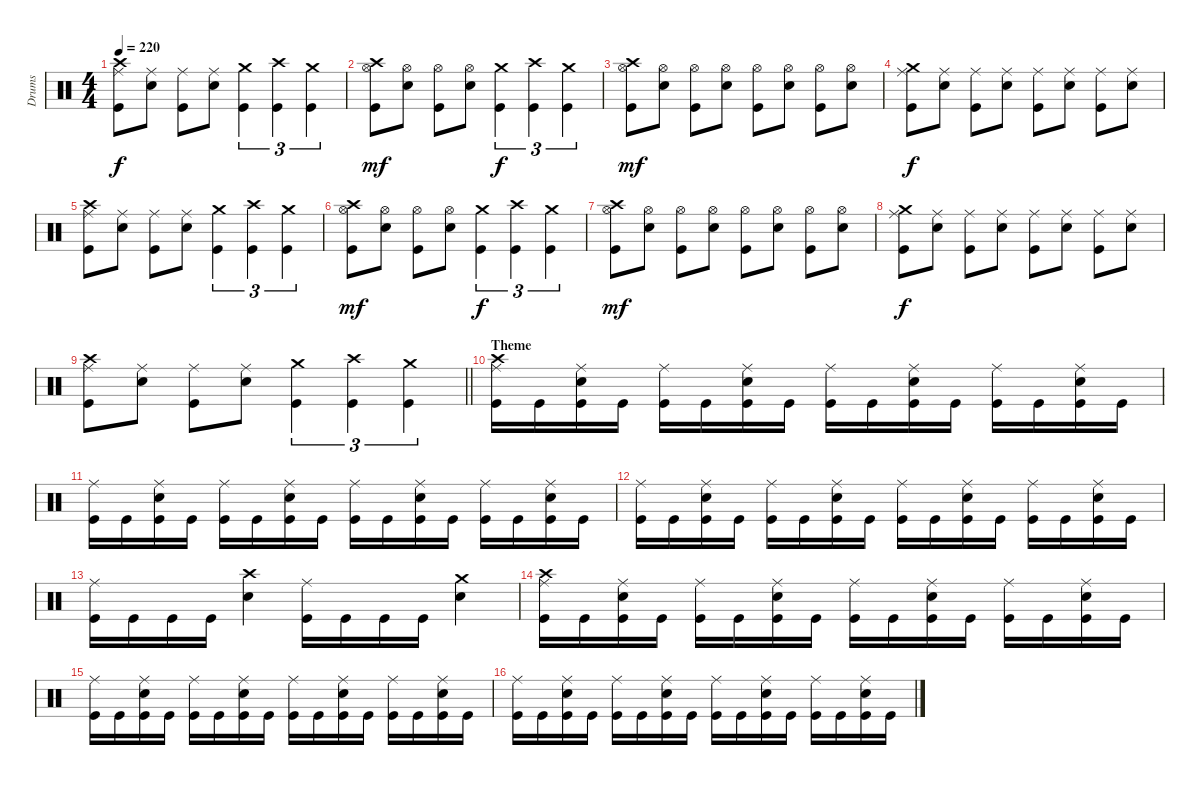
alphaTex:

\track ("Drums" "Drums") {instrument percussion}
\staff {score}
\articulation defaults
\ts (4 4)
\tempo 220
\clef neutral
\ks c
("Crash high (hit)" "Ride (middle)" "Kick (hit)").8{dy f} ("Ride (middle)" "Electric Snare (hit)").8 ("Ride (middle)" "Kick (hit)").8 ("Ride (middle)" "Electric Snare (hit)").8 ("Crash medium (hit)" "Kick (hit)").4{tu (3 2)} ("Crash high (hit)" "Kick (hit)").4{tu (3 2)} ("Crash medium (hit)" "Kick (hit)").4{tu (3 2)} |
("Crash high (hit)" "Hi-Hat (open)" "Kick (hit)").8{dy mf} ("Hi-Hat (open)" "Electric Snare (hit)").8 ("Hi-Hat (open)" "Kick (hit)").8 ("Hi-Hat (open)" "Electric Snare (hit)").8 ("Crash medium (hit)" "Kick (hit)").4{tu (3 2) dy f} ("Crash high (hit)" "Kick (hit)").4{tu (3 2)} ("Crash medium (hit)" "Kick (hit)").4{tu (3 2)} |
("Crash high (hit)" "Hi-Hat (open)" "Kick (hit)").8{dy mf} ("Hi-Hat (open)" "Electric Snare (hit)").8 ("Hi-Hat (open)" "Kick (hit)").8 ("Hi-Hat (open)" "Electric Snare (hit)").8 ("Hi-Hat (open)" "Kick (hit)").8 ("Hi-Hat (open)" "Electric Snare (hit)").8 ("Hi-Hat (open)" "Kick (hit)").8 ("Hi-Hat (open)" "Electric Snare (hit)").8 |
("Crash medium (hit)" "Ride (middle)" "Kick (hit)").8{dy f} ("Ride (middle)" "Electric Snare (hit)").8 ("Ride (middle)" "Kick (hit)").8 ("Ride (middle)" "Electric Snare (hit)").8 ("Ride (middle)" "Kick (hit)").8 ("Ride (middle)" "Electric Snare (hit)").8 ("Ride (middle)" "Kick (hit)").8 ("Ride (middle)" "Electric Snare (hit)").8 |
("Crash high (hit)" "Ride (middle)" "Kick (hit)").8 ("Ride (middle)" "Electric Snare (hit)").8 ("Ride (middle)" "Kick (hit)").8 ("Ride (middle)" "Electric Snare (hit)").8 ("Crash medium (hit)" "Kick (hit)").4{tu (3 2)} ("Crash high (hit)" "Kick (hit)").4{tu (3 2)} ("Crash medium (hit)" "Kick (hit)").4{tu (3 2)} |
("Crash high (hit)" "Hi-Hat (open)" "Kick (hit)").8{dy mf} ("Hi-Hat (open)" "Electric Snare (hit)").8 ("Hi-Hat (open)" "Kick (hit)").8 ("Hi-Hat (open)" "Electric Snare (hit)").8 ("Crash medium (hit)" "Kick (hit)").4{tu (3 2) dy f} ("Crash high (hit)" "Kick (hit)").4{tu (3 2)} ("Crash medium (hit)" "Kick (hit)").4{tu (3 2)} |
("Crash high (hit)" "Hi-Hat (open)" "Kick (hit)").8{dy mf} ("Hi-Hat (open)" "Electric Snare (hit)").8 ("Hi-Hat (open)" "Kick (hit)").8 ("Hi-Hat (open)" "Electric Snare (hit)").8 ("Hi-Hat (open)" "Kick (hit)").8 ("Hi-Hat (open)" "Electric Snare (hit)").8 ("Hi-Hat (open)" "Kick (hit)").8 ("Hi-Hat (open)" "Electric Snare (hit)").8 |
("Crash medium (hit)" "Ride (middle)" "Kick (hit)").8{dy f} ("Ride (middle)" "Electric Snare (hit)").8 ("Ride (middle)" "Kick (hit)").8 ("Ride (middle)" "Electric Snare (hit)").8 ("Ride (middle)" "Kick (hit)").8 ("Ride (middle)" "Electric Snare (hit)").8 ("Ride (middle)" "Kick (hit)").8 ("Ride (middle)" "Electric Snare (hit)").8 |
\barLineRight lightlight
("Crash high (hit)" "Ride (middle)" "Kick (hit)").8 ("Ride (middle)" "Electric Snare (hit)").8 ("Ride (middle)" "Kick (hit)").8 ("Ride (middle)" "Electric Snare (hit)").8 ("Crash medium (hit)" "Kick (hit)").4{tu (3 2)} ("Crash high (hit)" "Kick (hit)").4{tu (3 2)} ("Crash medium (hit)" "Kick (hit)").4{tu (3 2)} |
\section ("" "Theme")
("Crash high (hit)" "Ride (middle)" "Kick (hit)").16 "Kick (hit)".16 ("Ride (middle)" "Electric Snare (hit)" "Kick (hit)").16 "Kick (hit)".16 ("Ride (middle)" "Kick (hit)").16 "Kick (hit)".16 ("Ride (middle)" "Electric Snare (hit)" "Kick (hit)").16 "Kick (hit)".16 ("Ride (middle)" "Kick (hit)").16 "Kick (hit)".16 ("Ride (middle)" "Electric Snare (hit)" "Kick (hit)").16 "Kick (hit)".16 ("Ride (middle)" "Kick (hit)").16 "Kick (hit)".16 ("Ride (middle)" "Electric Snare (hit)" "Kick (hit)").16 "Kick (hit)".16 |
("Ride (middle)" "Kick (hit)").16 "Kick (hit)".16 ("Ride (middle)" "Electric Snare (hit)" "Kick (hit)").16 "Kick (hit)".16 ("Ride (middle)" "Kick (hit)").16 "Kick (hit)".16 ("Ride (middle)" "Electric Snare (hit)" "Kick (hit)").16 "Kick (hit)".16 ("Ride (middle)" "Kick (hit)").16 "Kick (hit)".16 ("Ride (middle)" "Electric Snare (hit)" "Kick (hit)").16 "Kick (hit)".16 ("Ride (middle)" "Kick (hit)").16 "Kick (hit)".16 ("Ride (middle)" "Electric Snare (hit)" "Kick (hit)").16 "Kick (hit)".16 |
("Ride (middle)" "Kick (hit)").16 "Kick (hit)".16 ("Ride (middle)" "Electric Snare (hit)" "Kick (hit)").16 "Kick (hit)".16 ("Ride (middle)" "Kick (hit)").16 "Kick (hit)".16 ("Ride (middle)" "Electric Snare (hit)" "Kick (hit)").16 "Kick (hit)".16 ("Ride (middle)" "Kick (hit)").16 "Kick (hit)".16 ("Ride (middle)" "Electric Snare (hit)" "Kick (hit)").16 "Kick (hit)".16 ("Ride (middle)" "Kick (hit)").16 "Kick (hit)".16 ("Ride (middle)" "Electric Snare (hit)" "Kick (hit)").16 "Kick (hit)".16 |
("Ride (middle)" "Kick (hit)").16 "Kick (hit)".16 "Kick (hit)".16 "Kick (hit)".16 ("Crash high (hit)" "Electric Snare (hit)").4 ("Ride (middle)" "Kick (hit)").16 "Kick (hit)".16 "Kick (hit)".16 "Kick (hit)".16 ("Crash medium (hit)" "Electric Snare (hit)").4 |
("Crash high (hit)" "Ride (middle)" "Kick (hit)").16 "Kick (hit)".16 ("Ride (middle)" "Electric Snare (hit)" "Kick (hit)").16 "Kick (hit)".16 ("Ride (middle)" "Kick (hit)").16 "Kick (hit)".16 ("Ride (middle)" "Electric Snare (hit)" "Kick (hit)").16 "Kick (hit)".16 ("Ride (middle)" "Kick (hit)").16 "Kick (hit)".16 ("Ride (middle)" "Electric Snare (hit)" "Kick (hit)").16 "Kick (hit)".16 ("Ride (middle)" "Kick (hit)").16 "Kick (hit)".16 ("Ride (middle)" "Electric Snare (hit)" "Kick (hit)").16 "Kick (hit)".16 |
("Ride (middle)" "Kick (hit)").16 "Kick (hit)".16 ("Ride (middle)" "Electric Snare (hit)" "Kick (hit)").16 "Kick (hit)".16 ("Ride (middle)" "Kick (hit)").16 "Kick (hit)".16 ("Ride (middle)" "Electric Snare (hit)" "Kick (hit)").16 "Kick (hit)".16 ("Ride (middle)" "Kick (hit)").16 "Kick (hit)".16 ("Ride (middle)" "Electric Snare (hit)" "Kick (hit)").16 "Kick (hit)".16 ("Ride (middle)" "Kick (hit)").16 "Kick (hit)".16 ("Ride (middle)" "Electric Snare (hit)" "Kick (hit)").16 "Kick (hit)".16 |
("Ride (middle)" "Kick (hit)").16 "Kick (hit)".16 ("Ride (middle)" "Electric Snare (hit)" "Kick (hit)").16 "Kick (hit)".16 ("Ride (middle)" "Kick (hit)").16 "Kick (hit)".16 ("Ride (middle)" "Electric Snare (hit)" "Kick (hit)").16 "Kick (hit)".16 ("Ride (middle)" "Kick (hit)").16 "Kick (hit)".16 ("Ride (middle)" "Electric Snare (hit)" "Kick (hit)").16 "Kick (hit)".16 ("Ride (middle)" "Kick (hit)").16 "Kick (hit)".16 ("Ride (middle)" "Electric Snare (hit)" "Kick (hit)").16 "Kick (hit)".16
